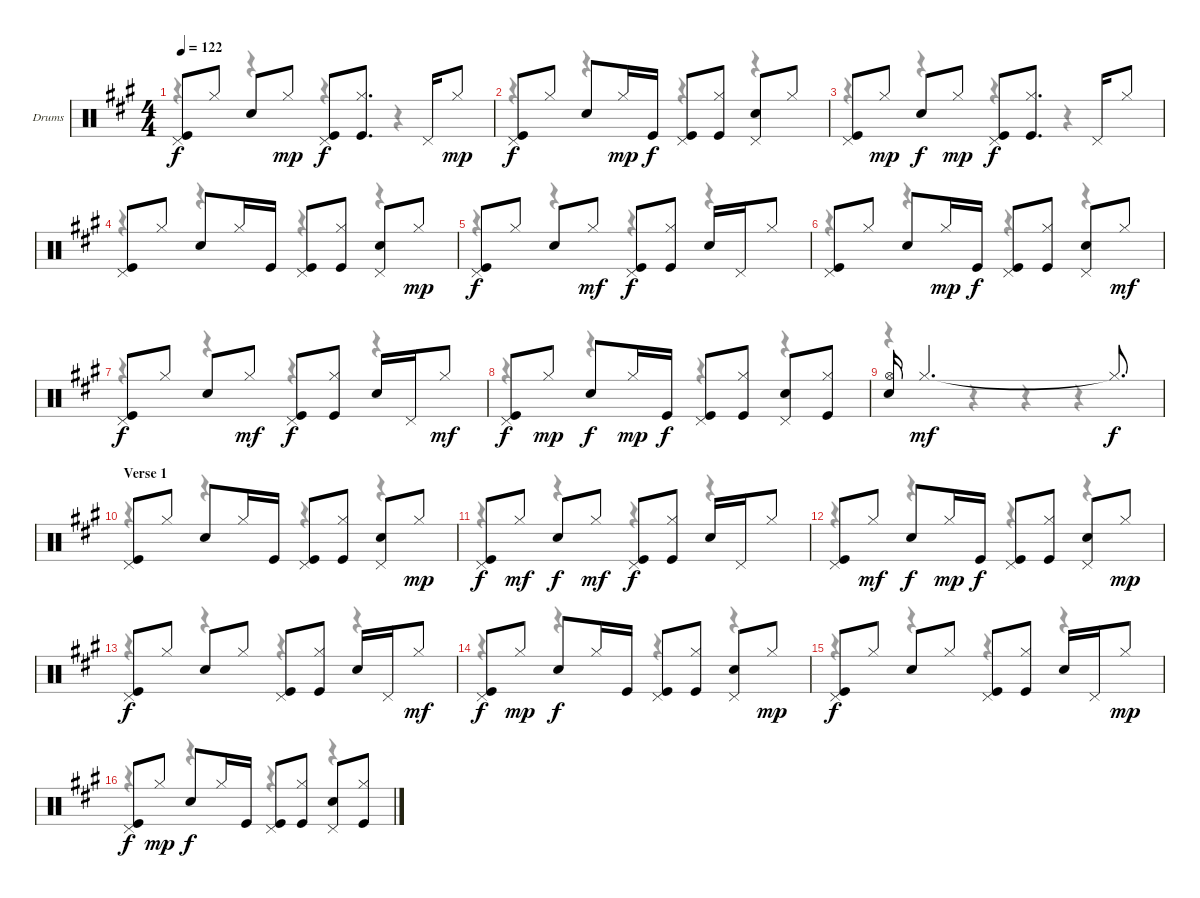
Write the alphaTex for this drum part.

\bracketExtendMode groupsimilarinstruments
\firstSystemTrackNameOrientation horizontal
\otherSystemsTrackNameOrientation horizontal
\track ("Chris Layton - Drums" "Drums") {instrument percussion}
\staff {score}
\articulation defaults
\voice
\ts (4 4)
\tempo 122
\clef neutral
\ks a
("Kick (hit)" "Pedal Hi-Hat (hit)").8{dy f} "Hi-Hat (closed)".8 "Snare (hit) 2".8 "Hi-Hat (closed)".8{dy mp} ("Kick (hit)" "Pedal Hi-Hat (hit)").8{dy f} ("Kick (hit)" "Hi-Hat (closed)").8{d} "Pedal Hi-Hat (hit)".16 "Hi-Hat (closed)".8{dy mp} |
("Kick (hit)" "Pedal Hi-Hat (hit)").8{dy f} "Hi-Hat (closed)".8 "Snare (hit) 2".8 "Hi-Hat (closed)".16{dy mp} "Kick (hit)".16{dy f} ("Kick (hit)" "Pedal Hi-Hat (hit)").8 ("Kick (hit)" "Hi-Hat (closed)").8 ("Snare (hit) 2" "Pedal Hi-Hat (hit)").8 "Hi-Hat (closed)".8 |
("Kick (hit)" "Pedal Hi-Hat (hit)").8 "Hi-Hat (closed)".8{dy mp} "Snare (hit) 2".8{dy f} "Hi-Hat (closed)".8{dy mp} ("Kick (hit)" "Pedal Hi-Hat (hit)").8{dy f} ("Kick (hit)" "Hi-Hat (closed)").8{d} "Pedal Hi-Hat (hit)".16 "Hi-Hat (closed)".8 |
("Kick (hit)" "Pedal Hi-Hat (hit)").8 "Hi-Hat (closed)".8 "Snare (hit) 2".8 "Hi-Hat (closed)".16 "Kick (hit)".16 ("Kick (hit)" "Pedal Hi-Hat (hit)").8 ("Kick (hit)" "Hi-Hat (closed)").8 ("Snare (hit) 2" "Pedal Hi-Hat (hit)").8 "Hi-Hat (closed)".8{dy mp} |
("Kick (hit)" "Pedal Hi-Hat (hit)").8{dy f} "Hi-Hat (closed)".8 "Snare (hit) 2".8 "Hi-Hat (closed)".8{dy mf} ("Kick (hit)" "Pedal Hi-Hat (hit)").8{dy f} ("Kick (hit)" "Hi-Hat (closed)").8 "Snare (hit) 2".16 "Pedal Hi-Hat (hit)".16 "Hi-Hat (closed)".8 |
("Kick (hit)" "Pedal Hi-Hat (hit)").8 "Hi-Hat (closed)".8 "Snare (hit) 2".8 "Hi-Hat (closed)".16{dy mp} "Kick (hit)".16{dy f} ("Kick (hit)" "Pedal Hi-Hat (hit)").8 ("Kick (hit)" "Hi-Hat (closed)").8 ("Snare (hit) 2" "Pedal Hi-Hat (hit)").8 "Hi-Hat (closed)".8{dy mf} |
("Kick (hit)" "Pedal Hi-Hat (hit)").8{dy f} "Hi-Hat (closed)".8 "Snare (hit) 2".8 "Hi-Hat (closed)".8{dy mf} ("Kick (hit)" "Pedal Hi-Hat (hit)").8{dy f} ("Kick (hit)" "Hi-Hat (closed)").8 "Snare (hit) 2".16 "Pedal Hi-Hat (hit)".16 "Hi-Hat (closed)".8{dy mf} |
("Kick (hit)" "Pedal Hi-Hat (hit)").8{dy f} "Hi-Hat (closed)".8{dy mp} "Snare (hit) 2".8{dy f} "Hi-Hat (closed)".16{dy mp} "Kick (hit)".16{dy f} ("Kick (hit)" "Pedal Hi-Hat (hit)").8 ("Kick (hit)" "Hi-Hat (closed)").8 ("Snare (hit) 2" "Pedal Hi-Hat (hit)").8 ("Kick (hit)" "Hi-Hat (closed)").8 |
("Snare (hit) 2" "Hi-Hat (open)").16 "Hi-Hat (closed)".2{d dy mf} "Hi-Hat (closed)"{t}.8{d dy f} |
\section ("" "Verse 1")
("Kick (hit)" "Pedal Hi-Hat (hit)").8 "Hi-Hat (closed)".8 "Snare (hit) 2".8 "Hi-Hat (closed)".16 "Kick (hit)".16 ("Kick (hit)" "Pedal Hi-Hat (hit)").8 ("Kick (hit)" "Hi-Hat (closed)").8 ("Snare (hit) 2" "Pedal Hi-Hat (hit)").8 "Hi-Hat (closed)".8{dy mp} |
("Kick (hit)" "Pedal Hi-Hat (hit)").8{dy f} "Hi-Hat (closed)".8{dy mf} "Snare (hit) 2".8{dy f} "Hi-Hat (closed)".8{dy mf} ("Kick (hit)" "Pedal Hi-Hat (hit)").8{dy f} ("Kick (hit)" "Hi-Hat (closed)").8 "Snare (hit) 2".16 "Pedal Hi-Hat (hit)".16 "Hi-Hat (closed)".8 |
("Kick (hit)" "Pedal Hi-Hat (hit)").8 "Hi-Hat (closed)".8{dy mf} "Snare (hit) 2".8{dy f} "Hi-Hat (closed)".16{dy mp} "Kick (hit)".16{dy f} ("Kick (hit)" "Pedal Hi-Hat (hit)").8 ("Kick (hit)" "Hi-Hat (closed)").8 ("Snare (hit) 2" "Pedal Hi-Hat (hit)").8 "Hi-Hat (closed)".8{dy mp} |
("Kick (hit)" "Pedal Hi-Hat (hit)").8{dy f} "Hi-Hat (closed)".8 "Snare (hit) 2".8 "Hi-Hat (closed)".8 ("Kick (hit)" "Pedal Hi-Hat (hit)").8 ("Kick (hit)" "Hi-Hat (closed)").8 "Snare (hit) 2".16 "Pedal Hi-Hat (hit)".16 "Hi-Hat (closed)".8{dy mf} |
("Kick (hit)" "Pedal Hi-Hat (hit)").8{dy f} "Hi-Hat (closed)".8{dy mp} "Snare (hit) 2".8{dy f} "Hi-Hat (closed)".16 "Kick (hit)".16 ("Kick (hit)" "Pedal Hi-Hat (hit)").8 ("Kick (hit)" "Hi-Hat (closed)").8 ("Snare (hit) 2" "Pedal Hi-Hat (hit)").8 "Hi-Hat (closed)".8{dy mp} |
("Kick (hit)" "Pedal Hi-Hat (hit)").8{dy f} "Hi-Hat (closed)".8 "Snare (hit) 2".8 "Hi-Hat (closed)".8 ("Kick (hit)" "Pedal Hi-Hat (hit)").8 ("Kick (hit)" "Hi-Hat (closed)").8 "Snare (hit) 2".16 "Pedal Hi-Hat (hit)".16 "Hi-Hat (closed)".8{dy mp} |
("Kick (hit)" "Pedal Hi-Hat (hit)").8{dy f} "Hi-Hat (closed)".8{dy mp} "Snare (hit) 2".8{dy f} "Hi-Hat (closed)".16 "Kick (hit)".16 ("Kick (hit)" "Pedal Hi-Hat (hit)").8 ("Kick (hit)" "Hi-Hat (closed)").8 ("Snare (hit) 2" "Pedal Hi-Hat (hit)").8 ("Kick (hit)" "Hi-Hat (closed)").8
\voice
\clef neutral
\ottava regular
\simile none
\ks a
r.4{dy mf} r.4 r.4 r.4 |
r.4 r.4 r.4 r.4 |
r.4 r.4 r.4 r.4 |
r.4 r.4 r.4 r.4 |
r.4 r.4 r.4 r.4 |
r.4 r.4 r.4 r.4 |
r.4 r.4 r.4 r.4 |
r.4 r.4 r.4 r.4 |
r.4 r.4 r.4 r.4 |
r.4 r.4 r.4 r.4 |
r.4 r.4 r.4 r.4 |
r.4 r.4 r.4 r.4 |
r.4 r.4 r.4 r.4 |
r.4 r.4 r.4 r.4 |
r.4 r.4 r.4 r.4 |
r.4 r.4 r.4 r.4
